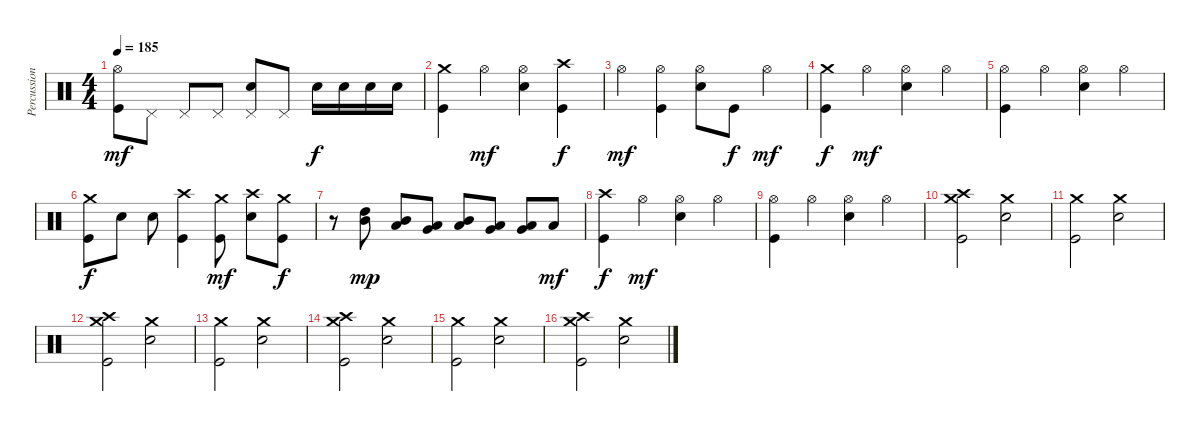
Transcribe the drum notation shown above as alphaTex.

\track ("Percussions" "Percussion") {instrument percussion}
\staff {score}
\articulation defaults
\ts (4 4)
\tempo 185
\clef neutral
\ks c
("Kick (hit)" "Hi-Hat (open)").8{dy mf} "Pedal Hi-Hat (hit)".8 "Pedal Hi-Hat (hit)".8 "Pedal Hi-Hat (hit)".8 ("Electric Snare (hit)" "Pedal Hi-Hat (hit)").8 "Pedal Hi-Hat (hit)".8 "Electric Snare (hit)".16{dy f} "Electric Snare (hit)".16 "Electric Snare (hit)".16 "Electric Snare (hit)".16 |
("Kick (hit)" "Crash medium (hit)").4 "Hi-Hat (open)".4{dy mf} ("Electric Snare (hit)" "Hi-Hat (open)").4 ("Kick (hit)" "Crash high (hit)").4{dy f} |
"Hi-Hat (open)".4{dy mf} ("Kick (hit)" "Hi-Hat (open)").4 ("Electric Snare (hit)" "Hi-Hat (open)").8 "Kick (hit)".8{dy f} "Hi-Hat (open)".4{dy mf} |
("Kick (hit)" "Crash medium (hit)").4{dy f} "Hi-Hat (open)".4{dy mf} ("Electric Snare (hit)" "Hi-Hat (open)").4 "Hi-Hat (open)".4 |
("Kick (hit)" "Hi-Hat (open)").4 "Hi-Hat (open)".4 ("Electric Snare (hit)" "Hi-Hat (open)").4 "Hi-Hat (open)".4 |
("Kick (hit)" "Crash medium (hit)").8{dy f} "Electric Snare (hit)".8 "Electric Snare (hit)".8 ("Kick (hit)" "Crash high (hit)").4 ("Kick (hit)" "Crash medium (hit)").8{dy mf} ("Electric Snare (hit)" "Crash high (hit)").8 ("Kick (hit)" "Crash medium (hit)").8{dy f} |
r.8 ("High Tom (hit)" "Mid Tom (hit)").8{dy mp} ("Mid Tom (hit)" "Low Tom (hit)").8 ("Low Tom (hit)" "Very Low Tom (hit)").8 ("Mid Tom (hit)" "Low Tom (hit)").8 ("Low Tom (hit)" "Very Low Tom (hit)").8 ("Very Low Tom (hit)" "Low Floor Tom (hit)").8 "Low Floor Tom (hit)".8{dy mf} |
("Kick (hit)" "Crash high (hit)").4{dy f} "Hi-Hat (open)".4{dy mf} ("Electric Snare (hit)" "Hi-Hat (open)").4 "Hi-Hat (open)".4 |
("Kick (hit)" "Hi-Hat (open)").4 "Hi-Hat (open)".4 ("Electric Snare (hit)" "Hi-Hat (open)").4 "Hi-Hat (open)".4 |
("Kick (hit)" "Crash medium (hit)" "Crash high (hit)").2 ("Electric Snare (hit)" "Crash medium (hit)").2 |
("Kick (hit)" "Crash medium (hit)").2 ("Electric Snare (hit)" "Crash medium (hit)").2 |
("Kick (hit)" "Crash medium (hit)" "Crash high (hit)").2 ("Electric Snare (hit)" "Crash medium (hit)").2 |
("Kick (hit)" "Crash medium (hit)").2 ("Electric Snare (hit)" "Crash medium (hit)").2 |
("Kick (hit)" "Crash medium (hit)" "Crash high (hit)").2 ("Electric Snare (hit)" "Crash medium (hit)").2 |
("Kick (hit)" "Crash medium (hit)").2 ("Electric Snare (hit)" "Crash medium (hit)").2 |
("Kick (hit)" "Crash medium (hit)" "Crash high (hit)").2 ("Electric Snare (hit)" "Crash medium (hit)").2
